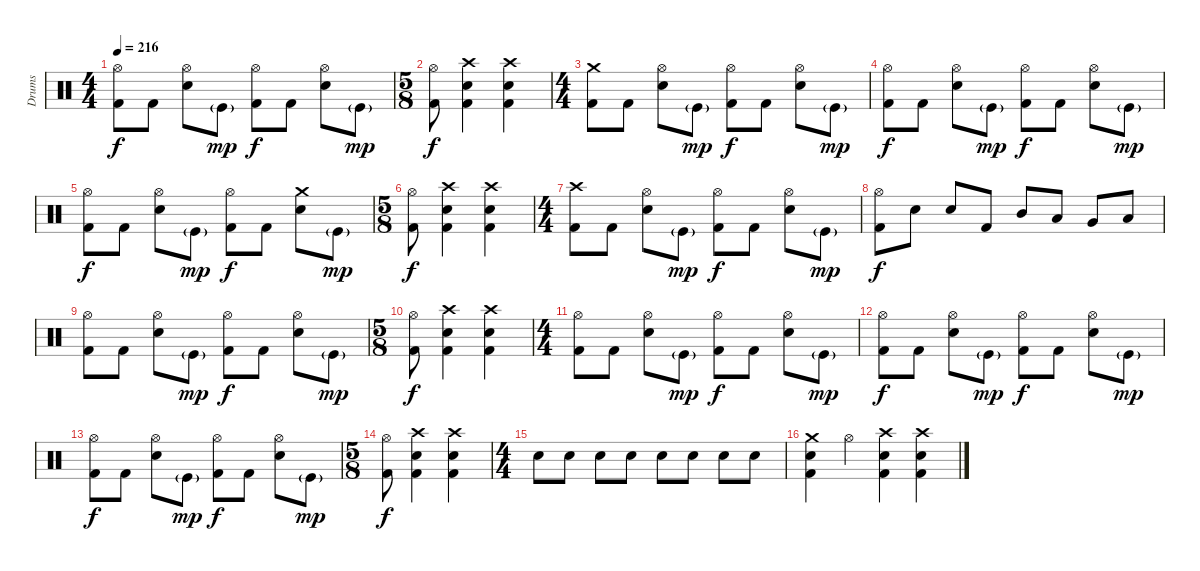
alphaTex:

\track ("Drums" "Drums") {instrument percussion}
\staff {score}
\articulation defaults
\ts (4 4)
\tempo 216
\clef neutral
\ks c
("Hi-Hat (open)" "Kick (hit) 2").8{dy f} "Kick (hit) 2".8 ("Hi-Hat (open)" "Snare (hit) 2").8 "Kick (hit)"{g}.8{dy mp} ("Hi-Hat (open)" "Kick (hit) 2").8{dy f} "Kick (hit) 2".8 ("Hi-Hat (open)" "Snare (hit) 2").8 "Kick (hit)"{g}.8{dy mp} |
\ts (5 8)
("Hi-Hat (open)" "Kick (hit) 2").8{dy f} ("Crash high (hit)" "Snare (hit) 2" "Kick (hit) 2").4 ("Crash high (hit)" "Snare (hit) 2" "Kick (hit) 2").4 |
\ts (4 4)
("Crash medium (hit)" "Kick (hit) 2").8 "Kick (hit) 2".8 ("Hi-Hat (open)" "Snare (hit) 2").8 "Kick (hit)"{g}.8{dy mp} ("Hi-Hat (open)" "Kick (hit) 2").8{dy f} "Kick (hit) 2".8 ("Hi-Hat (open)" "Snare (hit) 2").8 "Kick (hit)"{g}.8{dy mp} |
("Hi-Hat (open)" "Kick (hit) 2").8{dy f} "Kick (hit) 2".8 ("Hi-Hat (open)" "Snare (hit) 2").8 "Kick (hit)"{g}.8{dy mp} ("Hi-Hat (open)" "Kick (hit) 2").8{dy f} "Kick (hit) 2".8 ("Hi-Hat (open)" "Snare (hit) 2").8 "Kick (hit)"{g}.8{dy mp} |
("Hi-Hat (open)" "Kick (hit) 2").8{dy f} "Kick (hit) 2".8 ("Hi-Hat (open)" "Snare (hit) 2").8 "Kick (hit)"{g}.8{dy mp} ("Hi-Hat (open)" "Kick (hit) 2").8{dy f} "Kick (hit) 2".8 ("Crash medium (hit)" "Snare (hit) 2").8 "Kick (hit)"{g}.8{dy mp} |
\ts (5 8)
("Hi-Hat (open)" "Kick (hit) 2").8{dy f} ("Crash high (hit)" "Snare (hit) 2" "Kick (hit) 2").4 ("Crash high (hit)" "Snare (hit) 2" "Kick (hit) 2").4 |
\ts (4 4)
("Crash high (hit)" "Kick (hit) 2").8 "Kick (hit) 2".8 ("Hi-Hat (open)" "Snare (hit) 2").8 "Kick (hit)"{g}.8{dy mp} ("Hi-Hat (open)" "Kick (hit) 2").8{dy f} "Kick (hit) 2".8 ("Hi-Hat (open)" "Snare (hit) 2").8 "Kick (hit)"{g}.8{dy mp} |
("Hi-Hat (open)" "Kick (hit) 2").8{dy f} "Snare (hit) 2".8 "Snare (hit) 2".8 "Kick (hit) 2".8 "Mid Tom (hit)".8 "Low Tom (hit)".8 "Very Low Tom (hit)".8 "Low Floor Tom (hit)".8 |
("Hi-Hat (open)" "Kick (hit) 2").8 "Kick (hit) 2".8 ("Hi-Hat (open)" "Snare (hit) 2").8 "Kick (hit)"{g}.8{dy mp} ("Hi-Hat (open)" "Kick (hit) 2").8{dy f} "Kick (hit) 2".8 ("Hi-Hat (open)" "Snare (hit) 2").8 "Kick (hit)"{g}.8{dy mp} |
\ts (5 8)
("Hi-Hat (open)" "Kick (hit) 2").8{dy f} ("Crash high (hit)" "Snare (hit) 2" "Kick (hit) 2").4 ("Crash high (hit)" "Snare (hit) 2" "Kick (hit) 2").4 |
\ts (4 4)
("Hi-Hat (open)" "Kick (hit) 2").8 "Kick (hit) 2".8 ("Hi-Hat (open)" "Snare (hit) 2").8 "Kick (hit)"{g}.8{dy mp} ("Hi-Hat (open)" "Kick (hit) 2").8{dy f} "Kick (hit) 2".8 ("Hi-Hat (open)" "Snare (hit) 2").8 "Kick (hit)"{g}.8{dy mp} |
("Hi-Hat (open)" "Kick (hit) 2").8{dy f} "Kick (hit) 2".8 ("Hi-Hat (open)" "Snare (hit) 2").8 "Kick (hit)"{g}.8{dy mp} ("Hi-Hat (open)" "Kick (hit) 2").8{dy f} "Kick (hit) 2".8 ("Hi-Hat (open)" "Snare (hit) 2").8 "Kick (hit)"{g}.8{dy mp} |
("Hi-Hat (open)" "Kick (hit) 2").8{dy f} "Kick (hit) 2".8 ("Hi-Hat (open)" "Snare (hit) 2").8 "Kick (hit)"{g}.8{dy mp} ("Hi-Hat (open)" "Kick (hit) 2").8{dy f} "Kick (hit) 2".8 ("Hi-Hat (open)" "Snare (hit) 2").8 "Kick (hit)"{g}.8{dy mp} |
\ts (5 8)
("Hi-Hat (open)" "Kick (hit) 2").8{dy f} ("Crash high (hit)" "Snare (hit) 2" "Kick (hit) 2").4 ("Crash high (hit)" "Snare (hit) 2" "Kick (hit) 2").4 |
\ts (4 4)
"Electric Snare (hit)".8 "Electric Snare (hit)".8 "Electric Snare (hit)".8 "Electric Snare (hit)".8 "Electric Snare (hit)".8 "Electric Snare (hit)".8 "Electric Snare (hit)".8 "Electric Snare (hit)".8 |
("Crash medium (hit)" "Snare (hit) 2" "Kick (hit) 2").4 "Hi-Hat (open)".4 ("Crash high (hit)" "Snare (hit) 2" "Kick (hit) 2").4 ("Crash high (hit)" "Snare (hit) 2" "Kick (hit) 2").4
